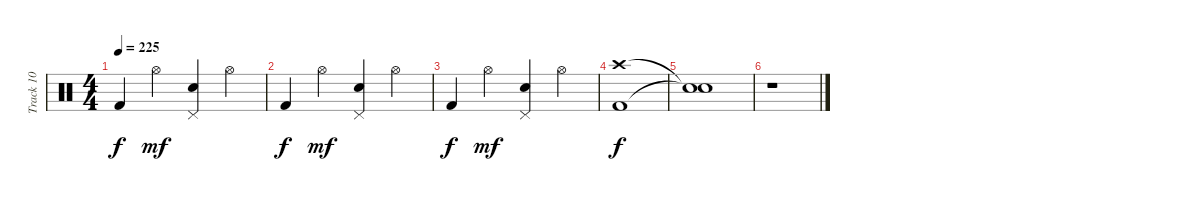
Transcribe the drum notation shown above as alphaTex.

\track ("Track 10" "Track 10") {instrument percussion}
\staff {score}
\articulation defaults
\ts (4 4)
\tempo 225
\clef neutral
\ks c "Kick (hit) 2".4{dy f} "Hi-Hat (open)".4{dy mf}
("Electric Snare (hit)" "Pedal Hi-Hat (hit)").4 "Hi-Hat (open)".4 |
"Kick (hit) 2".4{dy f} "Hi-Hat (open)".4{dy mf} ("Electric Snare (hit)" "Pedal Hi-Hat (hit)").4 "Hi-Hat (open)".4 |
"Kick (hit) 2".4{dy f} "Hi-Hat (open)".4{dy mf} ("Electric Snare (hit)" "Pedal Hi-Hat (hit)").4 "Hi-Hat (open)".4 |
("Crash high (hit)" "Kick (hit) 2").1{dy f} |
("Snare (hit)"{t} "Snare (hit)"{t}).1 |
r.1
